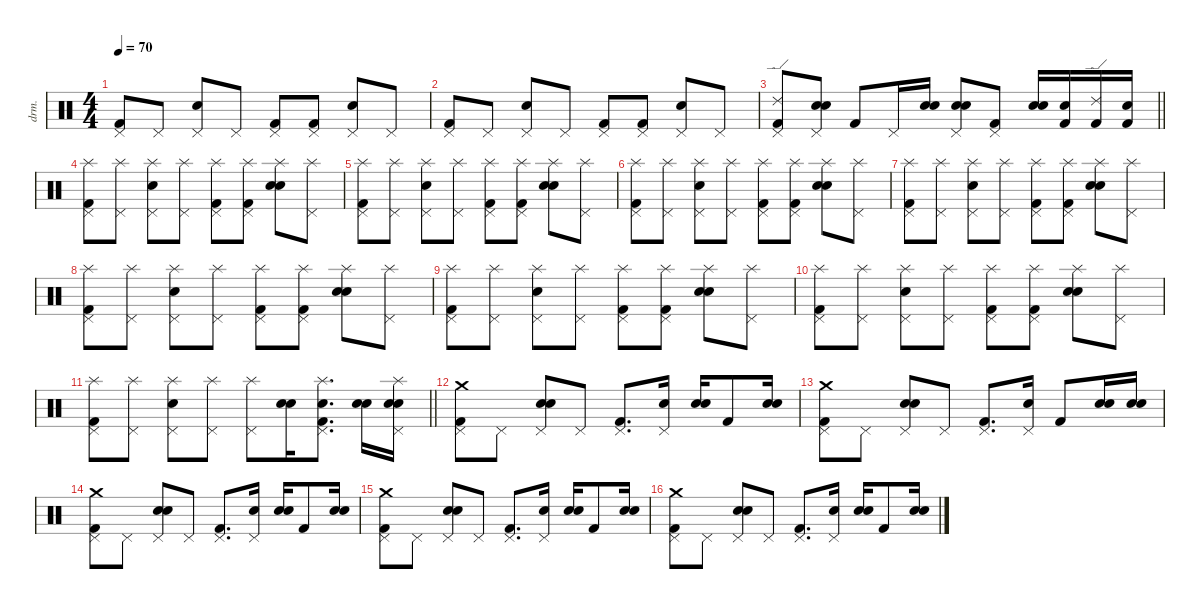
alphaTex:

\defaultSystemsLayout 4
\hideDynamics
\bracketExtendMode nobrackets
\otherSystemsTrackNameOrientation horizontal
\track ("Drums" "drm.") {defaultSystemsLayout 4 instrument percussion}
\staff {score}
\articulation defaults
\ts (4 4)
\tempo 70
\clef neutral
\ks c
("Pedal Hi-Hat (hit)" "Kick (hit) 2").8{dy f beam Up} "Pedal Hi-Hat (hit)".8{beam Up} ("Pedal Hi-Hat (hit)" "Snare (hit) 2").8{beam Up} "Pedal Hi-Hat (hit)".8{beam Up} ("Pedal Hi-Hat (hit)" "Kick (hit) 2").8{beam Up} ("Pedal Hi-Hat (hit)" "Kick (hit) 2").8{beam Up} ("Pedal Hi-Hat (hit)" "Snare (hit) 2").8{beam Up} "Pedal Hi-Hat (hit)".8{beam Up} |
("Pedal Hi-Hat (hit)" "Kick (hit) 2").8{beam Up} "Pedal Hi-Hat (hit)".8{beam Up} ("Pedal Hi-Hat (hit)" "Snare (hit) 2").8{beam Up} "Pedal Hi-Hat (hit)".8{beam Up} ("Pedal Hi-Hat (hit)" "Kick (hit) 2").8{beam Up} ("Pedal Hi-Hat (hit)" "Kick (hit) 2").8{beam Up} ("Pedal Hi-Hat (hit)" "Snare (hit) 2").8{beam Up} "Pedal Hi-Hat (hit)".8{beam Up} |
\barLineRight lightlight
("Ride (edge) 2" "Pedal Hi-Hat (hit)" "Kick (hit) 2").8{beam Up} ("Pedal Hi-Hat (hit)" "Snare (hit) 2" "Snare (hit) 2").8{beam Up} "Kick (hit) 2".8{beam Up} "Pedal Hi-Hat (hit)".16{beam Up} ("Snare (hit) 2" "Snare (hit) 2").16{beam Up} ("Pedal Hi-Hat (hit)" "Snare (hit) 2" "Snare (hit) 2").8{beam Up} ("Pedal Hi-Hat (hit)" "Kick (hit) 2").8{beam Up} ("Snare (hit) 2" "Snare (hit) 2").16{beam Up} ("Snare (hit) 2" "Kick (hit) 2").16{beam Up} ("Ride (edge) 2" "Kick (hit) 2").16{beam Up} ("Snare (hit) 2" "Kick (hit) 2").16{beam Up} |
("Splash (hit)" "Pedal Hi-Hat (hit)" "Kick (hit) 2").8{dy mf beam Down} ("Splash (hit)" "Pedal Hi-Hat (hit)").8{beam Down} ("Splash (hit)" "Pedal Hi-Hat (hit)" "Snare (hit) 2").8{beam Down} ("Splash (hit)" "Pedal Hi-Hat (hit)").8{beam Down} ("Splash (hit)" "Pedal Hi-Hat (hit)" "Kick (hit) 2").8{beam Down} ("Splash (hit)" "Pedal Hi-Hat (hit)" "Kick (hit) 2").8{beam Down} ("Splash (hit)" "Snare (hit) 2" "Snare (hit) 2").8{beam Down} ("Splash (hit)" "Pedal Hi-Hat (hit)").8{beam Down} |
("Splash (hit)" "Pedal Hi-Hat (hit)" "Kick (hit) 2").8{beam Down} ("Splash (hit)" "Pedal Hi-Hat (hit)").8{beam Down} ("Splash (hit)" "Pedal Hi-Hat (hit)" "Snare (hit) 2").8{beam Down} ("Splash (hit)" "Pedal Hi-Hat (hit)").8{beam Down} ("Splash (hit)" "Pedal Hi-Hat (hit)" "Kick (hit) 2").8{beam Down} ("Splash (hit)" "Pedal Hi-Hat (hit)" "Kick (hit) 2").8{beam Down} ("Splash (hit)" "Snare (hit) 2" "Snare (hit) 2").8{beam Down} ("Splash (hit)" "Pedal Hi-Hat (hit)").8{beam Down} |
("Splash (hit)" "Pedal Hi-Hat (hit)" "Kick (hit) 2").8{beam Down} ("Splash (hit)" "Pedal Hi-Hat (hit)").8{beam Down} ("Splash (hit)" "Pedal Hi-Hat (hit)" "Snare (hit) 2").8{beam Down} ("Splash (hit)" "Pedal Hi-Hat (hit)").8{beam Down} ("Splash (hit)" "Pedal Hi-Hat (hit)" "Kick (hit) 2").8{beam Down} ("Splash (hit)" "Pedal Hi-Hat (hit)" "Kick (hit) 2").8{beam Down} ("Splash (hit)" "Snare (hit) 2" "Snare (hit) 2").8{beam Down} ("Splash (hit)" "Pedal Hi-Hat (hit)").8{beam Down} |
("Splash (hit)" "Pedal Hi-Hat (hit)" "Kick (hit) 2").8{beam Down} ("Splash (hit)" "Pedal Hi-Hat (hit)").8{beam Down} ("Splash (hit)" "Pedal Hi-Hat (hit)" "Snare (hit) 2").8{beam Down} ("Splash (hit)" "Pedal Hi-Hat (hit)").8{beam Down} ("Splash (hit)" "Pedal Hi-Hat (hit)" "Kick (hit) 2").8{beam Down} ("Splash (hit)" "Pedal Hi-Hat (hit)" "Kick (hit) 2").8{beam Down} ("Splash (hit)" "Snare (hit) 2" "Snare (hit) 2").8{beam Down} ("Splash (hit)" "Pedal Hi-Hat (hit)").8{beam Down} |
("Splash (hit)" "Pedal Hi-Hat (hit)" "Kick (hit) 2").8{beam Down} ("Splash (hit)" "Pedal Hi-Hat (hit)").8{beam Down} ("Splash (hit)" "Pedal Hi-Hat (hit)" "Snare (hit) 2").8{beam Down} ("Splash (hit)" "Pedal Hi-Hat (hit)").8{beam Down} ("Splash (hit)" "Pedal Hi-Hat (hit)" "Kick (hit) 2").8{beam Down} ("Splash (hit)" "Pedal Hi-Hat (hit)" "Kick (hit) 2").8{beam Down} ("Splash (hit)" "Snare (hit) 2" "Snare (hit) 2").8{beam Down} ("Splash (hit)" "Pedal Hi-Hat (hit)").8{beam Down} |
("Splash (hit)" "Pedal Hi-Hat (hit)" "Kick (hit) 2").8{beam Down} ("Splash (hit)" "Pedal Hi-Hat (hit)").8{beam Down} ("Splash (hit)" "Pedal Hi-Hat (hit)" "Snare (hit) 2").8{beam Down} ("Splash (hit)" "Pedal Hi-Hat (hit)").8{beam Down} ("Splash (hit)" "Pedal Hi-Hat (hit)" "Kick (hit) 2").8{beam Down} ("Splash (hit)" "Pedal Hi-Hat (hit)" "Kick (hit) 2").8{beam Down} ("Splash (hit)" "Snare (hit) 2" "Snare (hit) 2").8{beam Down} ("Splash (hit)" "Pedal Hi-Hat (hit)").8{beam Down} |
("Splash (hit)" "Pedal Hi-Hat (hit)" "Kick (hit) 2").8{beam Down} ("Splash (hit)" "Pedal Hi-Hat (hit)").8{beam Down} ("Splash (hit)" "Pedal Hi-Hat (hit)" "Snare (hit) 2").8{beam Down} ("Splash (hit)" "Pedal Hi-Hat (hit)").8{beam Down} ("Splash (hit)" "Pedal Hi-Hat (hit)" "Kick (hit) 2").8{beam Down} ("Splash (hit)" "Pedal Hi-Hat (hit)" "Kick (hit) 2").8{beam Down} ("Splash (hit)" "Snare (hit) 2" "Snare (hit) 2").8{beam Down} ("Splash (hit)" "Pedal Hi-Hat (hit)").8{beam Down} |
\barLineRight lightlight
("Splash (hit)" "Pedal Hi-Hat (hit)" "Kick (hit) 2").8{dy f beam Down} ("Splash (hit)" "Pedal Hi-Hat (hit)").8{beam Down} ("Splash (hit)" "Pedal Hi-Hat (hit)" "Snare (hit) 2").8{beam Down} ("Splash (hit)" "Pedal Hi-Hat (hit)").8{beam Down} ("Splash (hit)" "Pedal Hi-Hat (hit)").8{beam Down} ("Snare (hit) 2" "Snare (hit) 2").16{beam Down} ("Splash (hit)" "Pedal Hi-Hat (hit)" "Snare (hit) 2" "Kick (hit) 2").8{d beam Down} ("Snare (hit) 2" "Snare (hit) 2").16{beam Down} ("Splash (hit)" "Pedal Hi-Hat (hit)" "Snare (hit) 2" "Snare (hit) 2").16{beam Down} |
("Crash medium (hit)" "Pedal Hi-Hat (hit)" "Kick (hit) 2").8{beam Down} "Pedal Hi-Hat (hit)".8{beam Down} ("Pedal Hi-Hat (hit)" "Snare (hit) 2" "Snare (hit) 2").8{beam Up} "Pedal Hi-Hat (hit)".8{beam Up} ("Pedal Hi-Hat (hit)" "Kick (hit) 2").8{d beam Up} ("Pedal Hi-Hat (hit)" "Snare (hit) 2").16{beam Up} ("Snare (hit) 2" "Snare (hit) 2").16{beam Up} "Kick (hit) 2".8{beam Up} ("Snare (hit) 2" "Snare (hit) 2").16{beam Up} |
("Crash medium (hit)" "Pedal Hi-Hat (hit)" "Kick (hit) 2").8{beam Down} "Pedal Hi-Hat (hit)".8{beam Down} ("Pedal Hi-Hat (hit)" "Snare (hit) 2" "Snare (hit) 2").8{beam Up} "Pedal Hi-Hat (hit)".8{beam Up} ("Pedal Hi-Hat (hit)" "Kick (hit) 2").8{d beam Up} ("Pedal Hi-Hat (hit)" "Snare (hit) 2").16{beam Up} "Kick (hit) 2".8{beam Up} ("Snare (hit) 2" "Snare (hit) 2").16{beam Up} ("Snare (hit) 2" "Snare (hit) 2").16{beam Up} |
("Crash medium (hit)" "Pedal Hi-Hat (hit)" "Kick (hit) 2").8{beam Down} "Pedal Hi-Hat (hit)".8{beam Down} ("Pedal Hi-Hat (hit)" "Snare (hit) 2" "Snare (hit) 2").8{beam Up} "Pedal Hi-Hat (hit)".8{beam Up} ("Pedal Hi-Hat (hit)" "Kick (hit) 2").8{d beam Up} ("Pedal Hi-Hat (hit)" "Snare (hit) 2").16{beam Up} ("Snare (hit) 2" "Snare (hit) 2").16{beam Up} "Kick (hit) 2".8{beam Up} ("Snare (hit) 2" "Snare (hit) 2").16{beam Up} |
("Crash medium (hit)" "Pedal Hi-Hat (hit)" "Kick (hit) 2").8{beam Down} "Pedal Hi-Hat (hit)".8{beam Down} ("Pedal Hi-Hat (hit)" "Snare (hit) 2" "Snare (hit) 2").8{beam Up} "Pedal Hi-Hat (hit)".8{beam Up} ("Pedal Hi-Hat (hit)" "Kick (hit) 2").8{d beam Up} ("Pedal Hi-Hat (hit)" "Snare (hit) 2").16{beam Up} ("Snare (hit) 2" "Snare (hit) 2").16{beam Up} "Kick (hit) 2".8{beam Up} ("Snare (hit) 2" "Snare (hit) 2").16{beam Up} |
("Crash medium (hit)" "Pedal Hi-Hat (hit)" "Kick (hit) 2").8{beam Down} "Pedal Hi-Hat (hit)".8{beam Down} ("Pedal Hi-Hat (hit)" "Snare (hit) 2" "Snare (hit) 2").8{beam Up} "Pedal Hi-Hat (hit)".8{beam Up} ("Pedal Hi-Hat (hit)" "Kick (hit) 2").8{d beam Up} ("Pedal Hi-Hat (hit)" "Snare (hit) 2").16{beam Up} ("Snare (hit) 2" "Snare (hit) 2").16{beam Up} "Kick (hit) 2".8{beam Up} ("Snare (hit) 2" "Snare (hit) 2").16{beam Up}
